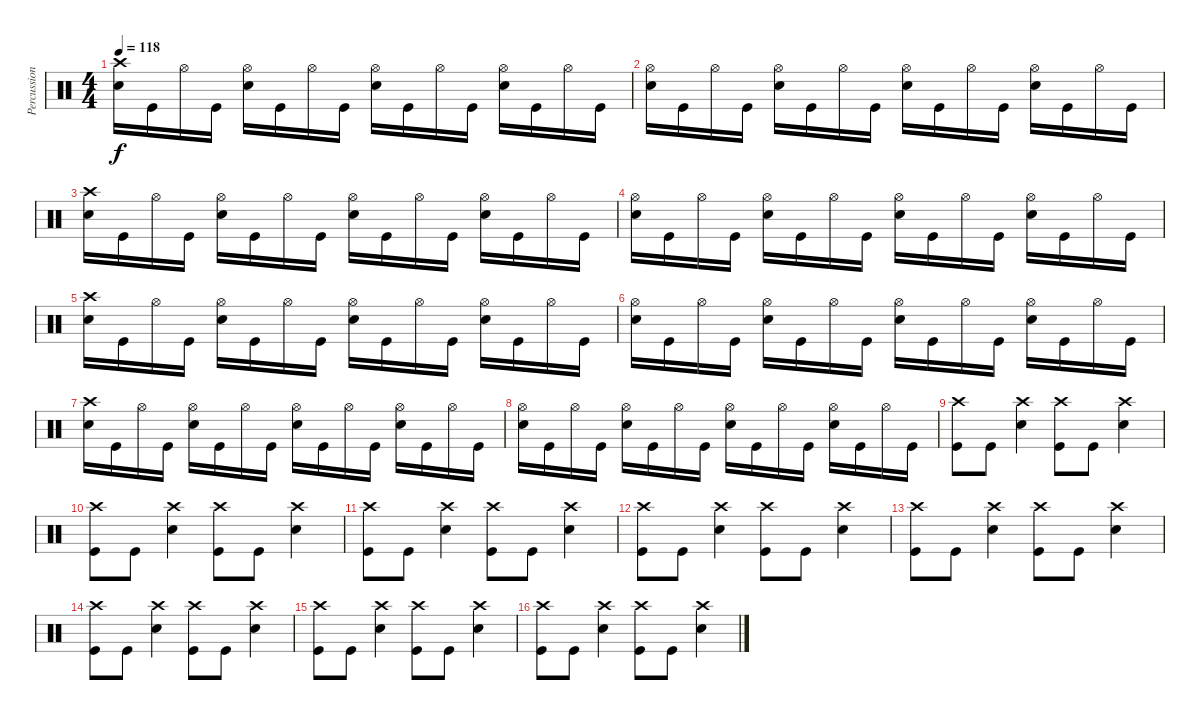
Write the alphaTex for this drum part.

\track ("Percussion" "Percussion") {instrument percussion}
\staff {score}
\articulation defaults
\ts (4 4)
\tempo 118
\clef neutral
\ks c
("Crash high (hit)" "Electric Snare (hit)").16{dy f} "Kick (hit)".16 "Hi-Hat (open)".16 "Kick (hit)".16 ("Hi-Hat (open)" "Electric Snare (hit)").16 "Kick (hit)".16 "Hi-Hat (open)".16 "Kick (hit)".16 ("Hi-Hat (open)" "Electric Snare (hit)").16 "Kick (hit)".16 "Hi-Hat (open)".16 "Kick (hit)".16 ("Hi-Hat (open)" "Electric Snare (hit)").16 "Kick (hit)".16 "Hi-Hat (open)".16 "Kick (hit)".16 |
("Hi-Hat (open)" "Electric Snare (hit)").16 "Kick (hit)".16 "Hi-Hat (open)".16 "Kick (hit)".16 ("Hi-Hat (open)" "Electric Snare (hit)").16 "Kick (hit)".16 "Hi-Hat (open)".16 "Kick (hit)".16 ("Hi-Hat (open)" "Electric Snare (hit)").16 "Kick (hit)".16 "Hi-Hat (open)".16 "Kick (hit)".16 ("Hi-Hat (open)" "Electric Snare (hit)").16 "Kick (hit)".16 "Hi-Hat (open)".16 "Kick (hit)".16 |
("Crash high (hit)" "Electric Snare (hit)").16 "Kick (hit)".16 "Hi-Hat (open)".16 "Kick (hit)".16 ("Hi-Hat (open)" "Electric Snare (hit)").16 "Kick (hit)".16 "Hi-Hat (open)".16 "Kick (hit)".16 ("Hi-Hat (open)" "Electric Snare (hit)").16 "Kick (hit)".16 "Hi-Hat (open)".16 "Kick (hit)".16 ("Hi-Hat (open)" "Electric Snare (hit)").16 "Kick (hit)".16 "Hi-Hat (open)".16 "Kick (hit)".16 |
("Hi-Hat (open)" "Electric Snare (hit)").16 "Kick (hit)".16 "Hi-Hat (open)".16 "Kick (hit)".16 ("Hi-Hat (open)" "Electric Snare (hit)").16 "Kick (hit)".16 "Hi-Hat (open)".16 "Kick (hit)".16 ("Hi-Hat (open)" "Electric Snare (hit)").16 "Kick (hit)".16 "Hi-Hat (open)".16 "Kick (hit)".16 ("Hi-Hat (open)" "Electric Snare (hit)").16 "Kick (hit)".16 "Hi-Hat (open)".16 "Kick (hit)".16 |
("Crash high (hit)" "Electric Snare (hit)").16 "Kick (hit)".16 "Hi-Hat (open)".16 "Kick (hit)".16 ("Hi-Hat (open)" "Electric Snare (hit)").16 "Kick (hit)".16 "Hi-Hat (open)".16 "Kick (hit)".16 ("Hi-Hat (open)" "Electric Snare (hit)").16 "Kick (hit)".16 "Hi-Hat (open)".16 "Kick (hit)".16 ("Hi-Hat (open)" "Electric Snare (hit)").16 "Kick (hit)".16 "Hi-Hat (open)".16 "Kick (hit)".16 |
("Hi-Hat (open)" "Electric Snare (hit)").16 "Kick (hit)".16 "Hi-Hat (open)".16 "Kick (hit)".16 ("Hi-Hat (open)" "Electric Snare (hit)").16 "Kick (hit)".16 "Hi-Hat (open)".16 "Kick (hit)".16 ("Hi-Hat (open)" "Electric Snare (hit)").16 "Kick (hit)".16 "Hi-Hat (open)".16 "Kick (hit)".16 ("Hi-Hat (open)" "Electric Snare (hit)").16 "Kick (hit)".16 "Hi-Hat (open)".16 "Kick (hit)".16 |
("Crash high (hit)" "Electric Snare (hit)").16 "Kick (hit)".16 "Hi-Hat (open)".16 "Kick (hit)".16 ("Hi-Hat (open)" "Electric Snare (hit)").16 "Kick (hit)".16 "Hi-Hat (open)".16 "Kick (hit)".16 ("Hi-Hat (open)" "Electric Snare (hit)").16 "Kick (hit)".16 "Hi-Hat (open)".16 "Kick (hit)".16 ("Hi-Hat (open)" "Electric Snare (hit)").16 "Kick (hit)".16 "Hi-Hat (open)".16 "Kick (hit)".16 |
("Hi-Hat (open)" "Electric Snare (hit)").16 "Kick (hit)".16 "Hi-Hat (open)".16 "Kick (hit)".16 ("Hi-Hat (open)" "Electric Snare (hit)").16 "Kick (hit)".16 "Hi-Hat (open)".16 "Kick (hit)".16 ("Hi-Hat (open)" "Electric Snare (hit)").16 "Kick (hit)".16 "Hi-Hat (open)".16 "Kick (hit)".16 ("Hi-Hat (open)" "Electric Snare (hit)").16 "Kick (hit)".16 "Hi-Hat (open)".16 "Kick (hit)".16 |
("Crash high (hit)" "Kick (hit)").8 "Kick (hit)".8 ("Crash high (hit)" "Electric Snare (hit)").4 ("Crash high (hit)" "Kick (hit)").8 "Kick (hit)".8 ("Crash high (hit)" "Electric Snare (hit)").4 |
("Crash high (hit)" "Kick (hit)").8 "Kick (hit)".8 ("Crash high (hit)" "Electric Snare (hit)").4 ("Crash high (hit)" "Kick (hit)").8 "Kick (hit)".8 ("Crash high (hit)" "Electric Snare (hit)").4 |
("Crash high (hit)" "Kick (hit)").8 "Kick (hit)".8 ("Crash high (hit)" "Electric Snare (hit)").4 ("Crash high (hit)" "Kick (hit)").8 "Kick (hit)".8 ("Crash high (hit)" "Electric Snare (hit)").4 |
("Crash high (hit)" "Kick (hit)").8 "Kick (hit)".8 ("Crash high (hit)" "Electric Snare (hit)").4 ("Crash high (hit)" "Kick (hit)").8 "Kick (hit)".8 ("Crash high (hit)" "Electric Snare (hit)").4 |
("Crash high (hit)" "Kick (hit)").8 "Kick (hit)".8 ("Crash high (hit)" "Electric Snare (hit)").4 ("Crash high (hit)" "Kick (hit)").8 "Kick (hit)".8 ("Crash high (hit)" "Electric Snare (hit)").4 |
("Crash high (hit)" "Kick (hit)").8 "Kick (hit)".8 ("Crash high (hit)" "Electric Snare (hit)").4 ("Crash high (hit)" "Kick (hit)").8 "Kick (hit)".8 ("Crash high (hit)" "Electric Snare (hit)").4 |
("Crash high (hit)" "Kick (hit)").8 "Kick (hit)".8 ("Crash high (hit)" "Electric Snare (hit)").4 ("Crash high (hit)" "Kick (hit)").8 "Kick (hit)".8 ("Crash high (hit)" "Electric Snare (hit)").4 |
("Crash high (hit)" "Kick (hit)").8 "Kick (hit)".8 ("Crash high (hit)" "Electric Snare (hit)").4 ("Crash high (hit)" "Kick (hit)").8 "Kick (hit)".8 ("Crash high (hit)" "Electric Snare (hit)").4
